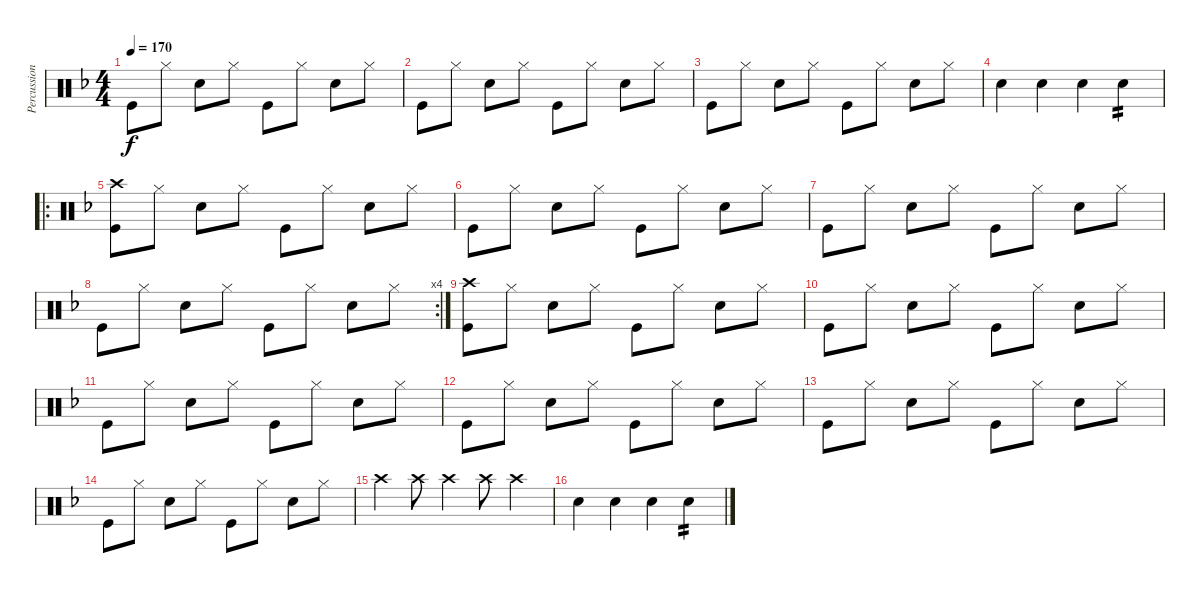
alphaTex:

\track ("Percussion" "Percussion") {instrument percussion}
\staff {score}
\articulation defaults
\ts (4 4)
\tempo 170
\clef neutral
\ks f "Kick (hit)".8{dy f} "Hi-Hat (closed)".8 "Snare (hit) 2".8 "Hi-Hat (closed)".8 "Kick (hit)".8 "Hi-Hat (closed)".8 "Snare (hit) 2".8 "Hi-Hat (closed)".8
|
"Kick (hit)".8 "Hi-Hat (closed)".8 "Snare (hit) 2".8 "Hi-Hat (closed)".8 "Kick (hit)".8 "Hi-Hat (closed)".8 "Snare (hit) 2".8 "Hi-Hat (closed)".8 |
"Kick (hit)".8 "Hi-Hat (closed)".8 "Snare (hit) 2".8 "Hi-Hat (closed)".8 "Kick (hit)".8 "Hi-Hat (closed)".8 "Snare (hit) 2".8 "Hi-Hat (closed)".8 |
"Snare (hit) 2".4 "Snare (hit) 2".4 "Snare (hit) 2".4 "Snare (hit) 2".4{tp 2} |
\ro
("Crash high (hit)" "Kick (hit)").8 "Hi-Hat (closed)".8 "Snare (hit) 2".8 "Hi-Hat (closed)".8 "Kick (hit)".8 "Hi-Hat (closed)".8 "Snare (hit) 2".8 "Hi-Hat (closed)".8 |
"Kick (hit)".8 "Hi-Hat (closed)".8 "Snare (hit) 2".8 "Hi-Hat (closed)".8 "Kick (hit)".8 "Hi-Hat (closed)".8 "Snare (hit) 2".8 "Hi-Hat (closed)".8 |
"Kick (hit)".8 "Hi-Hat (closed)".8 "Snare (hit) 2".8 "Hi-Hat (closed)".8 "Kick (hit)".8 "Hi-Hat (closed)".8 "Snare (hit) 2".8 "Hi-Hat (closed)".8 |
\rc 4 "Kick (hit)".8 "Hi-Hat (closed)".8 "Snare (hit) 2".8 "Hi-Hat (closed)".8 "Kick (hit)".8 "Hi-Hat (closed)".8 "Snare (hit) 2".8 "Hi-Hat (closed)".8
|
("Crash high (hit)" "Kick (hit)").8 "Hi-Hat (closed)".8 "Snare (hit) 2".8 "Hi-Hat (closed)".8 "Kick (hit)".8 "Hi-Hat (closed)".8 "Snare (hit) 2".8 "Hi-Hat (closed)".8 |
"Kick (hit)".8 "Hi-Hat (closed)".8 "Snare (hit) 2".8 "Hi-Hat (closed)".8 "Kick (hit)".8 "Hi-Hat (closed)".8 "Snare (hit) 2".8 "Hi-Hat (closed)".8 |
"Kick (hit)".8 "Hi-Hat (closed)".8 "Snare (hit) 2".8 "Hi-Hat (closed)".8 "Kick (hit)".8 "Hi-Hat (closed)".8 "Snare (hit) 2".8 "Hi-Hat (closed)".8 |
"Kick (hit)".8 "Hi-Hat (closed)".8 "Snare (hit) 2".8 "Hi-Hat (closed)".8 "Kick (hit)".8 "Hi-Hat (closed)".8 "Snare (hit) 2".8 "Hi-Hat (closed)".8 |
"Kick (hit)".8 "Hi-Hat (closed)".8 "Snare (hit) 2".8 "Hi-Hat (closed)".8 "Kick (hit)".8 "Hi-Hat (closed)".8 "Snare (hit) 2".8 "Hi-Hat (closed)".8 |
"Kick (hit)".8 "Hi-Hat (closed)".8 "Snare (hit) 2".8 "Hi-Hat (closed)".8 "Kick (hit)".8 "Hi-Hat (closed)".8 "Snare (hit) 2".8 "Hi-Hat (closed)".8 |
"Crash high (hit)".4 "Crash high (hit)".8 "Crash high (hit)".4 "Crash high (hit)".8 "Crash high (hit)".4 |
"Snare (hit) 2".4 "Snare (hit) 2".4 "Snare (hit) 2".4 "Snare (hit) 2".4{tp 2}
